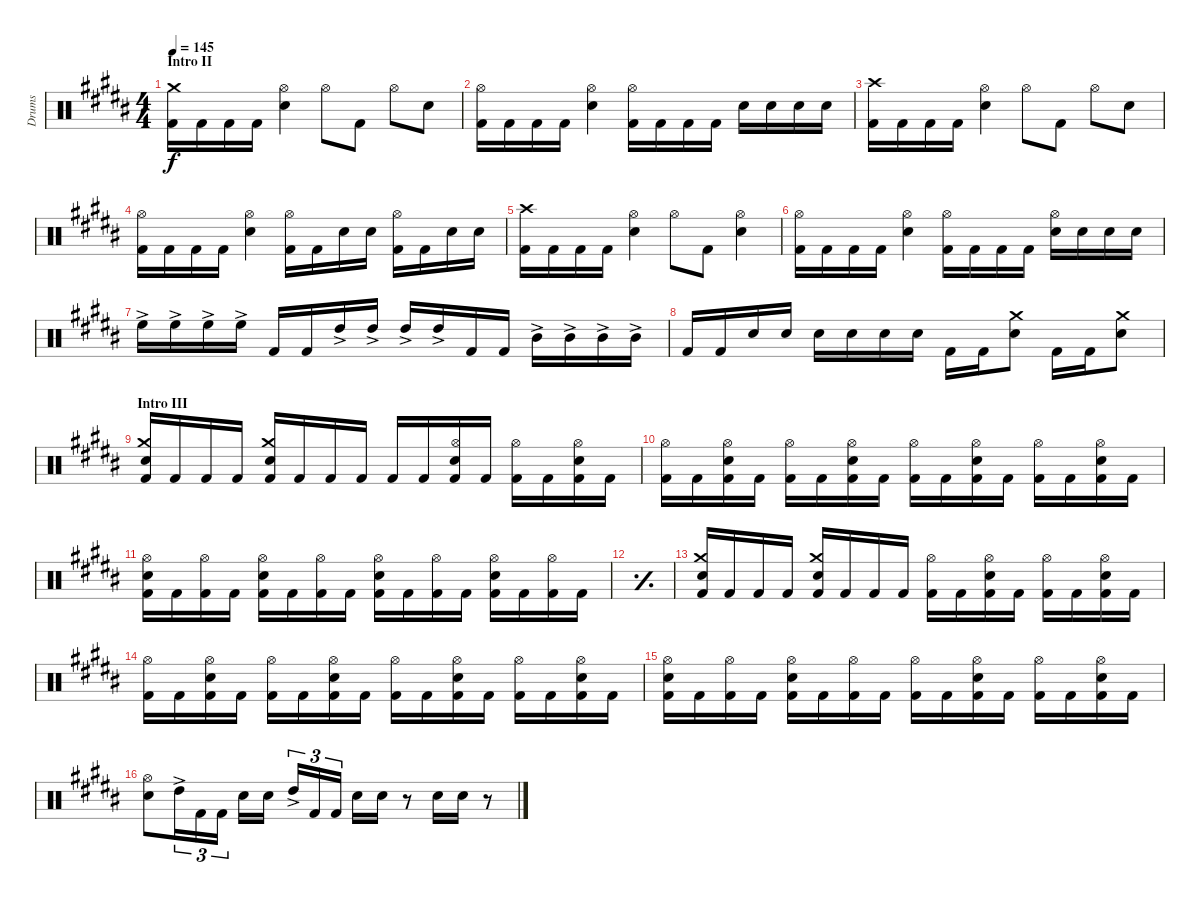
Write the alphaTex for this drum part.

\defaultSystemsLayout 4
\bracketExtendMode groupsimilarinstruments
\otherSystemsTrackNameOrientation horizontal
\track ("Drumkit" "Drums") {multiBarRest instrument percussion}
\staff {score}
\articulation defaults
\ts (4 4)
\section ("" "Intro II")
\tempo 145
\clef neutral
\ks b
("Kick (hit) 2"{acc forcenatural} "Crash medium (hit)"{acc forcenatural}).16{dy f} "Kick (hit) 2"{acc forcenatural}.16 "Kick (hit) 2"{acc forcenatural}.16 "Kick (hit) 2"{acc forcenatural}.16 ("Hi-Hat (open)"{acc forcenatural} "Snare (hit) 2"{acc forcenatural}).4 "Hi-Hat (open)"{acc forcenatural}.8 "Kick (hit) 2"{acc forcenatural}.8 "Hi-Hat (open)"{acc forcenatural}.8 "Snare (hit) 2"{acc forcenatural}.8 |
("Hi-Hat (open)"{acc forcenatural} "Kick (hit) 2"{acc forcenatural}).16 "Kick (hit) 2"{acc forcenatural}.16 "Kick (hit) 2"{acc forcenatural}.16 "Kick (hit) 2"{acc forcenatural}.16 ("Snare (hit) 2"{acc forcenatural} "Hi-Hat (open)"{acc forcenatural}).4 ("Kick (hit) 2"{acc forcenatural} "Hi-Hat (open)"{acc forcenatural}).16 "Kick (hit) 2"{acc forcenatural}.16 "Kick (hit) 2"{acc forcenatural}.16 "Kick (hit) 2"{acc forcenatural}.16 "Snare (hit) 2"{acc forcenatural}.16 "Snare (hit) 2"{acc forcenatural}.16 "Snare (hit) 2"{acc forcenatural}.16 "Snare (hit) 2"{acc forcenatural}.16 |
("Kick (hit) 2"{acc forcenatural} "Crash high (hit)"{acc forcenatural}).16 "Kick (hit) 2"{acc forcenatural}.16 "Kick (hit) 2"{acc forcenatural}.16 "Kick (hit) 2"{acc forcenatural}.16 ("Hi-Hat (open)"{acc forcenatural} "Snare (hit) 2"{acc forcenatural}).4 "Hi-Hat (open)"{acc forcenatural}.8 "Kick (hit) 2"{acc forcenatural}.8 "Hi-Hat (open)"{acc forcenatural}.8 "Snare (hit) 2"{acc forcenatural}.8 |
("Kick (hit) 2"{acc forcenatural} "Hi-Hat (open)"{acc forcenatural}).16 "Kick (hit) 2"{acc forcenatural}.16 "Kick (hit) 2"{acc forcenatural}.16 "Kick (hit) 2"{acc forcenatural}.16 ("Hi-Hat (open)"{acc forcenatural} "Snare (hit) 2"{acc forcenatural}).4 ("Hi-Hat (open)"{acc forcenatural} "Kick (hit) 2"{acc forcenatural}).16 "Kick (hit) 2"{acc forcenatural}.16 "Snare (hit) 2"{acc forcenatural}.16 "Snare (hit) 2"{acc forcenatural}.16 ("Hi-Hat (open)"{acc forcenatural} "Kick (hit) 2"{acc forcenatural}).16 "Kick (hit) 2"{acc forcenatural}.16 "Snare (hit) 2"{acc forcenatural}.16 "Snare (hit) 2"{acc forcenatural}.16 |
("Kick (hit) 2"{acc forcenatural} "Crash high (hit)"{acc forcenatural}).16 "Kick (hit) 2"{acc forcenatural}.16 "Kick (hit) 2"{acc forcenatural}.16 "Kick (hit) 2"{acc forcenatural}.16 ("Hi-Hat (open)"{acc forcenatural} "Snare (hit) 2"{acc forcenatural}).4 "Hi-Hat (open)"{acc forcenatural}.8 "Kick (hit) 2"{acc forcenatural}.8 ("Hi-Hat (open)"{acc forcenatural} "Snare (hit) 2"{acc forcenatural}).4 |
("Hi-Hat (open)"{acc forcenatural} "Kick (hit) 2"{acc forcenatural}).16 "Kick (hit) 2"{acc forcenatural}.16 "Kick (hit) 2"{acc forcenatural}.16 "Kick (hit) 2"{acc forcenatural}.16 ("Snare (hit) 2"{acc forcenatural} "Hi-Hat (open)"{acc forcenatural}).4 ("Kick (hit) 2"{acc forcenatural} "Hi-Hat (open)"{acc forcenatural}).16 "Kick (hit) 2"{acc forcenatural}.16 "Kick (hit) 2"{acc forcenatural}.16 "Kick (hit) 2"{acc forcenatural}.16 ("Snare (hit) 2"{acc forcenatural} "Hi-Hat (open)"{acc forcenatural}).16 "Snare (hit) 2"{acc forcenatural}.16 "Snare (hit) 2"{acc forcenatural}.16 "Snare (hit) 2"{acc forcenatural}.16 |
"High Floor Tom (hit)"{ac acc forcenatural}.16 "High Floor Tom (hit)"{ac acc forcenatural}.16 "High Floor Tom (hit)"{ac acc forcenatural}.16 "High Floor Tom (hit)"{ac acc forcenatural}.16 "Kick (hit) 2"{acc forcenatural}.16 "Kick (hit) 2"{acc forcenatural}.16 "High Tom (hit)"{ac acc forcenatural}.16 "High Tom (hit)"{ac acc forcenatural}.16 "High Tom (hit)"{ac acc forcenatural}.16 "High Tom (hit)"{ac acc forcenatural}.16 "Kick (hit) 2"{acc forcenatural}.16 "Kick (hit) 2"{acc forcenatural}.16 "Mid Tom (hit)"{ac acc forcenatural}.16 "Mid Tom (hit)"{ac acc forcenatural}.16 "Mid Tom (hit)"{ac acc forcenatural}.16 "Mid Tom (hit)"{ac acc forcenatural}.16 |
"Kick (hit) 2"{acc forcenatural}.16 "Kick (hit) 2"{acc forcenatural}.16 "Snare (hit) 2"{acc forcenatural}.16 "Snare (hit) 2"{acc forcenatural}.16 "Snare (hit) 2"{acc forcenatural}.16 "Snare (hit) 2"{acc forcenatural}.16 "Snare (hit) 2"{acc forcenatural}.16 "Snare (hit) 2"{acc forcenatural}.16 "Kick (hit) 2"{acc forcenatural}.16 "Kick (hit) 2"{acc forcenatural}.16 ("Snare (hit) 2"{acc forcenatural} "Crash medium (hit)"{acc forcenatural}).8 "Kick (hit) 2"{acc forcenatural}.16 "Kick (hit) 2"{acc forcenatural}.16 ("Snare (hit) 2"{acc forcenatural} "Crash medium (hit)"{acc forcenatural}).8 |
\section ("" "Intro III")
("Kick (hit) 2"{acc forcenatural} "Crash medium (hit)"{acc forcenatural} "Snare (hit) 2"{acc forcenatural}).16 "Kick (hit) 2"{acc forcenatural}.16 "Kick (hit) 2"{acc forcenatural}.16 "Kick (hit) 2"{acc forcenatural}.16 ("Kick (hit) 2"{acc forcenatural} "Crash medium (hit)"{acc forcenatural} "Snare (hit) 2"{acc forcenatural}).16 "Kick (hit) 2"{acc forcenatural}.16 "Kick (hit) 2"{acc forcenatural}.16 "Kick (hit) 2"{acc forcenatural}.16 "Kick (hit) 2"{acc forcenatural}.16 "Kick (hit) 2"{acc forcenatural}.16 ("Kick (hit) 2"{acc forcenatural} "Snare (hit) 2"{acc forcenatural} "Hi-Hat (open)"{acc forcenatural}).16 "Kick (hit) 2"{acc forcenatural}.16 ("Kick (hit) 2"{acc forcenatural} "Hi-Hat (open)"{acc forcenatural}).16 "Kick (hit) 2"{acc forcenatural}.16 ("Kick (hit) 2"{acc forcenatural} "Snare (hit) 2"{acc forcenatural} "Hi-Hat (open)"{acc forcenatural}).16 "Kick (hit) 2"{acc forcenatural}.16 |
("Kick (hit) 2"{acc forcenatural} "Hi-Hat (open)"{acc forcenatural}).16 "Kick (hit) 2"{acc forcenatural}.16 ("Kick (hit) 2"{acc forcenatural} "Snare (hit) 2"{acc forcenatural} "Hi-Hat (open)"{acc forcenatural}).16 "Kick (hit) 2"{acc forcenatural}.16 ("Kick (hit) 2"{acc forcenatural} "Hi-Hat (open)"{acc forcenatural}).16 "Kick (hit) 2"{acc forcenatural}.16 ("Kick (hit) 2"{acc forcenatural} "Snare (hit) 2"{acc forcenatural} "Hi-Hat (open)"{acc forcenatural}).16 "Kick (hit) 2"{acc forcenatural}.16 ("Kick (hit) 2"{acc forcenatural} "Hi-Hat (open)"{acc forcenatural}).16 "Kick (hit) 2"{acc forcenatural}.16 ("Kick (hit) 2"{acc forcenatural} "Snare (hit) 2"{acc forcenatural} "Hi-Hat (open)"{acc forcenatural}).16 "Kick (hit) 2"{acc forcenatural}.16 ("Kick (hit) 2"{acc forcenatural} "Hi-Hat (open)"{acc forcenatural}).16 "Kick (hit) 2"{acc forcenatural}.16 ("Kick (hit) 2"{acc forcenatural} "Snare (hit) 2"{acc forcenatural} "Hi-Hat (open)"{acc forcenatural}).16 "Kick (hit) 2"{acc forcenatural}.16 |
("Kick (hit) 2"{acc forcenatural} "Snare (hit) 2"{acc forcenatural} "Hi-Hat (open)"{acc forcenatural}).16 "Kick (hit) 2"{acc forcenatural}.16 ("Kick (hit) 2"{acc forcenatural} "Hi-Hat (open)"{acc forcenatural}).16 "Kick (hit) 2"{acc forcenatural}.16 ("Kick (hit) 2"{acc forcenatural} "Snare (hit) 2"{acc forcenatural} "Hi-Hat (open)"{acc forcenatural}).16 "Kick (hit) 2"{acc forcenatural}.16 ("Kick (hit) 2"{acc forcenatural} "Hi-Hat (open)"{acc forcenatural}).16 "Kick (hit) 2"{acc forcenatural}.16 ("Kick (hit) 2"{acc forcenatural} "Snare (hit) 2"{acc forcenatural} "Hi-Hat (open)"{acc forcenatural}).16 "Kick (hit) 2"{acc forcenatural}.16 ("Kick (hit) 2"{acc forcenatural} "Hi-Hat (open)"{acc forcenatural}).16 "Kick (hit) 2"{acc forcenatural}.16 ("Kick (hit) 2"{acc forcenatural} "Snare (hit) 2"{acc forcenatural} "Hi-Hat (open)"{acc forcenatural}).16 "Kick (hit) 2"{acc forcenatural}.16 ("Kick (hit) 2"{acc forcenatural} "Hi-Hat (open)"{acc forcenatural}).16 "Kick (hit) 2"{acc forcenatural}.16 |
\simile simple
|
\simile none
("Kick (hit) 2"{acc forcenatural} "Snare (hit) 2"{acc forcenatural} "Crash medium (hit)"{acc forcenatural}).16 "Kick (hit) 2"{acc forcenatural}.16 "Kick (hit) 2"{acc forcenatural}.16 "Kick (hit) 2"{acc forcenatural}.16 ("Kick (hit) 2"{acc forcenatural} "Crash medium (hit)"{acc forcenatural} "Snare (hit) 2"{acc forcenatural}).16 "Kick (hit) 2"{acc forcenatural}.16 "Kick (hit) 2"{acc forcenatural}.16 "Kick (hit) 2"{acc forcenatural}.16 ("Kick (hit) 2"{acc forcenatural} "Hi-Hat (open)"{acc forcenatural}).16 "Kick (hit) 2"{acc forcenatural}.16 ("Kick (hit) 2"{acc forcenatural} "Snare (hit) 2"{acc forcenatural} "Hi-Hat (open)"{acc forcenatural}).16 "Kick (hit) 2"{acc forcenatural}.16 ("Kick (hit) 2"{acc forcenatural} "Hi-Hat (open)"{acc forcenatural}).16 "Kick (hit) 2"{acc forcenatural}.16 ("Kick (hit) 2"{acc forcenatural} "Snare (hit) 2"{acc forcenatural} "Hi-Hat (open)"{acc forcenatural}).16 "Kick (hit) 2"{acc forcenatural}.16 |
("Kick (hit) 2"{acc forcenatural} "Hi-Hat (open)"{acc forcenatural}).16 "Kick (hit) 2"{acc forcenatural}.16 ("Kick (hit) 2"{acc forcenatural} "Snare (hit) 2"{acc forcenatural} "Hi-Hat (open)"{acc forcenatural}).16 "Kick (hit) 2"{acc forcenatural}.16 ("Kick (hit) 2"{acc forcenatural} "Hi-Hat (open)"{acc forcenatural}).16 "Kick (hit) 2"{acc forcenatural}.16 ("Kick (hit) 2"{acc forcenatural} "Snare (hit) 2"{acc forcenatural} "Hi-Hat (open)"{acc forcenatural}).16 "Kick (hit) 2"{acc forcenatural}.16 ("Kick (hit) 2"{acc forcenatural} "Hi-Hat (open)"{acc forcenatural}).16 "Kick (hit) 2"{acc forcenatural}.16 ("Kick (hit) 2"{acc forcenatural} "Snare (hit) 2"{acc forcenatural} "Hi-Hat (open)"{acc forcenatural}).16 "Kick (hit) 2"{acc forcenatural}.16 ("Kick (hit) 2"{acc forcenatural} "Hi-Hat (open)"{acc forcenatural}).16 "Kick (hit) 2"{acc forcenatural}.16 ("Kick (hit) 2"{acc forcenatural} "Snare (hit) 2"{acc forcenatural} "Hi-Hat (open)"{acc forcenatural}).16 "Kick (hit) 2"{acc forcenatural}.16 |
("Kick (hit) 2"{acc forcenatural} "Snare (hit) 2"{acc forcenatural} "Hi-Hat (open)"{acc forcenatural}).16 "Kick (hit) 2"{acc forcenatural}.16 ("Kick (hit) 2"{acc forcenatural} "Hi-Hat (open)"{acc forcenatural}).16 "Kick (hit) 2"{acc forcenatural}.16 ("Kick (hit) 2"{acc forcenatural} "Snare (hit) 2"{acc forcenatural} "Hi-Hat (open)"{acc forcenatural}).16 "Kick (hit) 2"{acc forcenatural}.16 ("Kick (hit) 2"{acc forcenatural} "Hi-Hat (open)"{acc forcenatural}).16 "Kick (hit) 2"{acc forcenatural}.16 ("Kick (hit) 2"{acc forcenatural} "Hi-Hat (open)"{acc forcenatural}).16 "Kick (hit) 2"{acc forcenatural}.16 ("Kick (hit) 2"{acc forcenatural} "Snare (hit) 2"{acc forcenatural} "Hi-Hat (open)"{acc forcenatural}).16 "Kick (hit) 2"{acc forcenatural}.16 ("Kick (hit) 2"{acc forcenatural} "Hi-Hat (open)"{acc forcenatural}).16 "Kick (hit) 2"{acc forcenatural}.16 ("Kick (hit) 2"{acc forcenatural} "Snare (hit) 2"{acc forcenatural} "Hi-Hat (open)"{acc forcenatural}).16 "Kick (hit) 2"{acc forcenatural}.16 |
("Hi-Hat (open)"{acc forcenatural} "Snare (hit) 2"{acc forcenatural}).8{beam merge} "High Tom (hit)"{ac acc forcenatural}.16{tu (3 2)} "Kick (hit) 2"{acc forcenatural}.16{tu (3 2)} "Kick (hit) 2"{acc forcenatural}.16{tu (3 2)} "Snare (hit) 2"{acc forcenatural}.16 "Snare (hit) 2"{acc forcenatural}.16{beam splitsecondary} "High Tom (hit)"{ac acc forcenatural}.16{tu (3 2)} "Kick (hit) 2"{acc forcenatural}.16{tu (3 2)} "Kick (hit) 2"{acc forcenatural}.16{tu (3 2)} "Snare (hit) 2"{acc forcenatural}.16 "Snare (hit) 2"{acc forcenatural}.16 r.8 "Snare (hit) 2"{acc forcenatural}.16 "Snare (hit) 2"{acc forcenatural}.16 r.8
